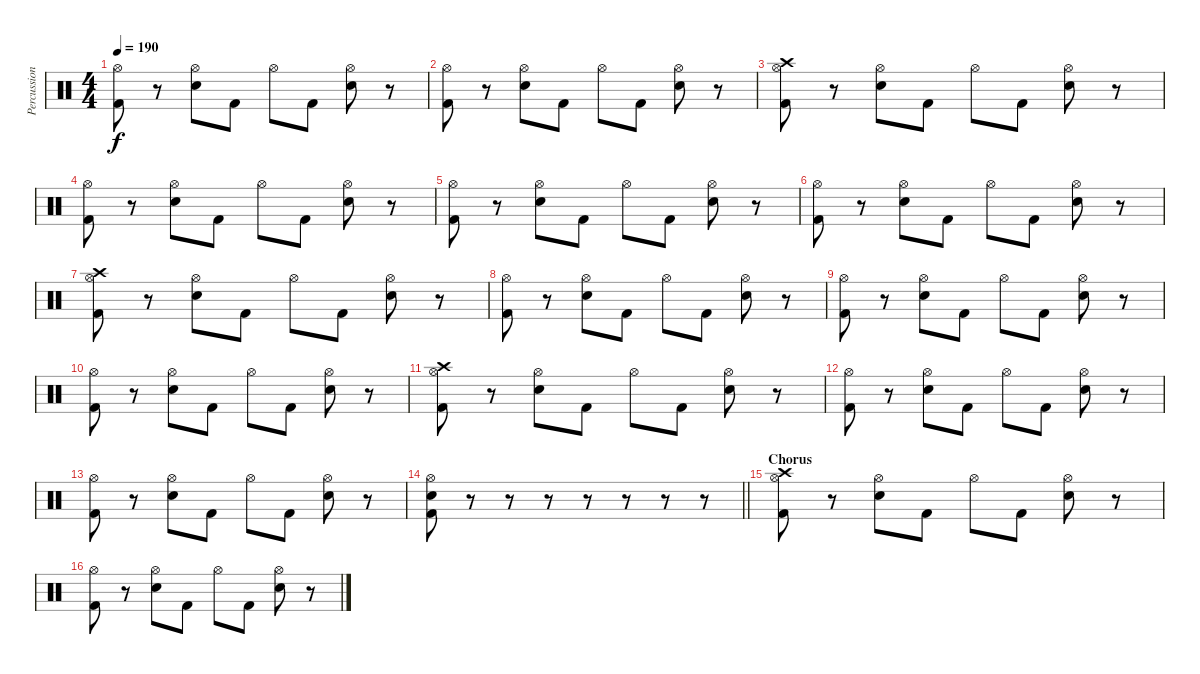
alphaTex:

\track ("Percussion" "Percussion") {instrument percussion}
\staff {score}
\articulation defaults
\ts (4 4)
\tempo 190
\clef neutral
\ks c
("Hi-Hat (open)" "Kick (hit) 2").8{dy f} r.8 ("Hi-Hat (open)" "Snare (hit) 2").8 "Kick (hit) 2".8 "Hi-Hat (open)".8 "Kick (hit) 2".8 ("Hi-Hat (open)" "Snare (hit) 2").8 r.8 |
("Hi-Hat (open)" "Kick (hit) 2").8 r.8 ("Hi-Hat (open)" "Snare (hit) 2").8 "Kick (hit) 2".8 "Hi-Hat (open)".8 "Kick (hit) 2".8 ("Hi-Hat (open)" "Snare (hit) 2").8 r.8 |
("Hi-Hat (open)" "Crash high (hit)" "Kick (hit) 2").8 r.8 ("Hi-Hat (open)" "Snare (hit) 2").8 "Kick (hit) 2".8 "Hi-Hat (open)".8 "Kick (hit) 2".8 ("Hi-Hat (open)" "Snare (hit) 2").8 r.8 |
("Hi-Hat (open)" "Kick (hit) 2").8 r.8 ("Hi-Hat (open)" "Snare (hit) 2").8 "Kick (hit) 2".8 "Hi-Hat (open)".8 "Kick (hit) 2".8 ("Hi-Hat (open)" "Snare (hit) 2").8 r.8 |
("Hi-Hat (open)" "Kick (hit) 2").8 r.8 ("Hi-Hat (open)" "Snare (hit) 2").8 "Kick (hit) 2".8 "Hi-Hat (open)".8 "Kick (hit) 2".8 ("Hi-Hat (open)" "Snare (hit) 2").8 r.8 |
("Hi-Hat (open)" "Kick (hit) 2").8 r.8 ("Hi-Hat (open)" "Snare (hit) 2").8 "Kick (hit) 2".8 "Hi-Hat (open)".8 "Kick (hit) 2".8 ("Hi-Hat (open)" "Snare (hit) 2").8 r.8 |
("Hi-Hat (open)" "Crash high (hit)" "Kick (hit) 2").8 r.8 ("Hi-Hat (open)" "Snare (hit) 2").8 "Kick (hit) 2".8 "Hi-Hat (open)".8 "Kick (hit) 2".8 ("Hi-Hat (open)" "Snare (hit) 2").8 r.8 |
("Hi-Hat (open)" "Kick (hit) 2").8 r.8 ("Hi-Hat (open)" "Snare (hit) 2").8 "Kick (hit) 2".8 "Hi-Hat (open)".8 "Kick (hit) 2".8 ("Hi-Hat (open)" "Snare (hit) 2").8 r.8 |
("Hi-Hat (open)" "Kick (hit) 2").8 r.8 ("Hi-Hat (open)" "Snare (hit) 2").8 "Kick (hit) 2".8 "Hi-Hat (open)".8 "Kick (hit) 2".8 ("Hi-Hat (open)" "Snare (hit) 2").8 r.8 |
("Hi-Hat (open)" "Kick (hit) 2").8 r.8 ("Hi-Hat (open)" "Snare (hit) 2").8 "Kick (hit) 2".8 "Hi-Hat (open)".8 "Kick (hit) 2".8 ("Hi-Hat (open)" "Snare (hit) 2").8 r.8 |
("Hi-Hat (open)" "Crash high (hit)" "Kick (hit) 2").8 r.8 ("Hi-Hat (open)" "Snare (hit) 2").8 "Kick (hit) 2".8 "Hi-Hat (open)".8 "Kick (hit) 2".8 ("Hi-Hat (open)" "Snare (hit) 2").8 r.8 |
("Hi-Hat (open)" "Kick (hit) 2").8 r.8 ("Hi-Hat (open)" "Snare (hit) 2").8 "Kick (hit) 2".8 "Hi-Hat (open)".8 "Kick (hit) 2".8 ("Hi-Hat (open)" "Snare (hit) 2").8 r.8 |
("Hi-Hat (open)" "Kick (hit) 2").8 r.8 ("Hi-Hat (open)" "Snare (hit) 2").8 "Kick (hit) 2".8 "Hi-Hat (open)".8 "Kick (hit) 2".8 ("Hi-Hat (open)" "Snare (hit) 2").8 r.8 |
\barLineRight lightlight
("Hi-Hat (open)" "Snare (hit) 2" "Kick (hit) 2").8 r.8 r.8 r.8 r.8 r.8 r.8 r.8 |
\section ("" "Chorus")
("Hi-Hat (open)" "Crash high (hit)" "Kick (hit) 2").8 r.8 ("Hi-Hat (open)" "Snare (hit) 2").8 "Kick (hit) 2".8 "Hi-Hat (open)".8 "Kick (hit) 2".8 ("Hi-Hat (open)" "Snare (hit) 2").8 r.8 |
("Hi-Hat (open)" "Kick (hit) 2").8 r.8 ("Hi-Hat (open)" "Snare (hit) 2").8 "Kick (hit) 2".8 "Hi-Hat (open)".8 "Kick (hit) 2".8 ("Hi-Hat (open)" "Snare (hit) 2").8 r.8
